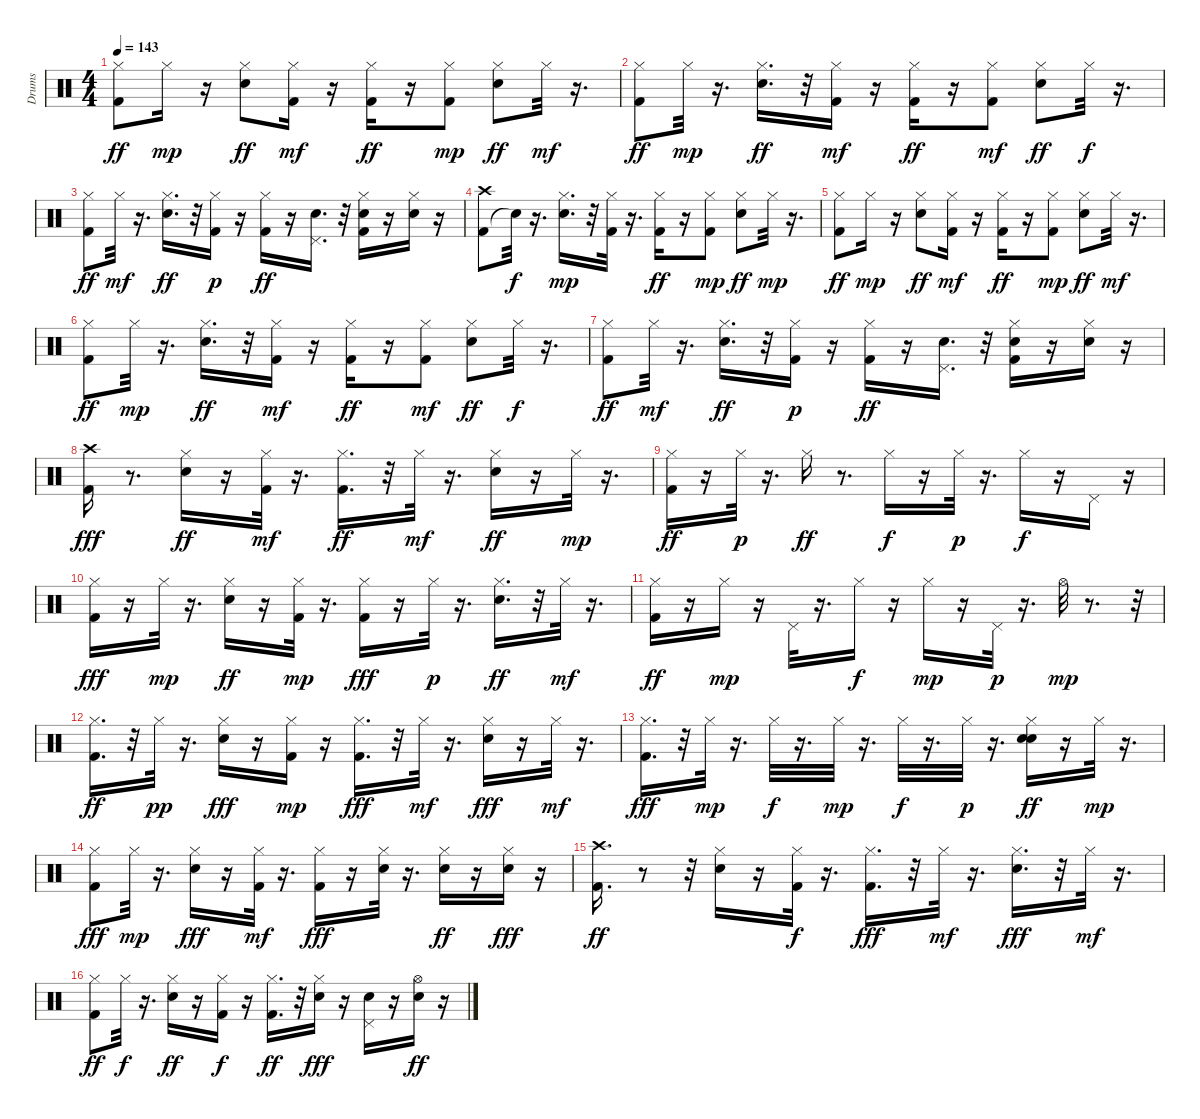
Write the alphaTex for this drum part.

\track ("Drums               " "Drums     ") {instrument percussion}
\staff {score}
\articulation defaults
\ts (4 4)
\tempo 143
\clef neutral
\ks c
("Kick (hit) 2" "Hi-Hat (closed)").8{dy ff} "Hi-Hat (closed)".16{dy mp} r.16 ("Snare (hit) 2" "Hi-Hat (closed)").8{dy ff} ("Kick (hit) 2" "Hi-Hat (closed)").16{dy mf} r.16 ("Kick (hit) 2" "Hi-Hat (closed)").16{dy ff} r.16 ("Kick (hit) 2" "Hi-Hat (closed)").8{dy mp} ("Snare (hit) 2" "Hi-Hat (closed)").8{dy ff} "Hi-Hat (closed)".32{dy mf} r.16{d} |
("Kick (hit) 2" "Hi-Hat (closed)").8{dy ff} "Hi-Hat (closed)".32{dy mp} r.16{d} ("Snare (hit) 2" "Hi-Hat (closed)").16{d dy ff} r.32 ("Kick (hit) 2" "Hi-Hat (closed)").16{dy mf} r.16 ("Kick (hit) 2" "Hi-Hat (closed)").16{dy ff} r.16 ("Kick (hit) 2" "Hi-Hat (closed)").8{dy mf} ("Snare (hit) 2" "Hi-Hat (closed)").8{dy ff} "Hi-Hat (closed)".32{dy f} r.16{d} |
("Kick (hit) 2" "Hi-Hat (closed)").8{dy ff} "Hi-Hat (closed)".32{dy mf} r.16{d} ("Snare (hit) 2" "Hi-Hat (closed)").16{d dy ff} r.32 ("Kick (hit) 2" "Hi-Hat (closed)").16{dy p} r.16 ("Kick (hit) 2" "Hi-Hat (closed)").16{dy ff} r.16 ("Snare (hit) 2" "Pedal Hi-Hat (hit)").16{d} r.32 ("Kick (hit) 2" "Snare (hit) 2" "Hi-Hat (closed)").16 r.16 ("Snare (hit) 2" "Hi-Hat (closed)").16 r.16 |
("Kick (hit) 2" "Crash high (hit)").8 "Snare (hit)"{t}.32{dy f} r.16{d} ("Snare (hit) 2" "Hi-Hat (closed)").16{d dy mp} r.32 ("Kick (hit) 2" "Hi-Hat (closed)").32 r.16{d} ("Kick (hit) 2" "Hi-Hat (closed)").16{dy ff} r.16 ("Kick (hit) 2" "Hi-Hat (closed)").8{dy mp} ("Snare (hit) 2" "Hi-Hat (closed)").8{dy ff} "Hi-Hat (closed)".32{dy mp} r.16{d} |
("Kick (hit) 2" "Hi-Hat (closed)").8{dy ff} "Hi-Hat (closed)".16{dy mp} r.16 ("Snare (hit) 2" "Hi-Hat (closed)").8{dy ff} ("Kick (hit) 2" "Hi-Hat (closed)").16{dy mf} r.16 ("Kick (hit) 2" "Hi-Hat (closed)").16{dy ff} r.16 ("Kick (hit) 2" "Hi-Hat (closed)").8{dy mp} ("Snare (hit) 2" "Hi-Hat (closed)").8{dy ff} "Hi-Hat (closed)".32{dy mf} r.16{d} |
("Kick (hit) 2" "Hi-Hat (closed)").8{dy ff} "Hi-Hat (closed)".32{dy mp} r.16{d} ("Snare (hit) 2" "Hi-Hat (closed)").16{d dy ff} r.32 ("Kick (hit) 2" "Hi-Hat (closed)").16{dy mf} r.16 ("Kick (hit) 2" "Hi-Hat (closed)").16{dy ff} r.16 ("Kick (hit) 2" "Hi-Hat (closed)").8{dy mf} ("Snare (hit) 2" "Hi-Hat (closed)").8{dy ff} "Hi-Hat (closed)".32{dy f} r.16{d} |
("Kick (hit) 2" "Hi-Hat (closed)").8{dy ff} "Hi-Hat (closed)".32{dy mf} r.16{d} ("Snare (hit) 2" "Hi-Hat (closed)").16{d dy ff} r.32 ("Kick (hit) 2" "Hi-Hat (closed)").16{dy p} r.16 ("Kick (hit) 2" "Hi-Hat (closed)").16{dy ff} r.16 ("Snare (hit) 2" "Pedal Hi-Hat (hit)").16{d} r.32 ("Kick (hit) 2" "Snare (hit) 2" "Hi-Hat (closed)").16 r.16 ("Snare (hit) 2" "Hi-Hat (closed)").16 r.16 |
("Kick (hit) 2" "Crash high (hit)").16{dy fff} r.8{d} ("Snare (hit) 2" "Hi-Hat (closed)").16{dy ff} r.16 ("Kick (hit) 2" "Hi-Hat (closed)").32{dy mf} r.16{d} ("Kick (hit) 2" "Hi-Hat (closed)").16{d dy ff} r.32 "Hi-Hat (closed)".32{dy mf} r.16{d} ("Snare (hit) 2" "Hi-Hat (closed)").16{dy ff} r.16 "Hi-Hat (closed)".32{dy mp} r.16{d} |
("Kick (hit) 2" "Hi-Hat (closed)").16{dy ff} r.16 "Hi-Hat (closed)".32{dy p} r.16{d} "Hi-Hat (closed)".16{dy ff} r.8{d} "Hi-Hat (closed)".16{dy f} r.16 "Hi-Hat (closed)".32{dy p} r.16{d} "Hi-Hat (closed)".16{dy f} r.16 "Pedal Hi-Hat (hit)".16 r.16 |
("Kick (hit) 2" "Hi-Hat (closed)").16{dy fff} r.16 "Hi-Hat (closed)".32{dy mp} r.16{d} ("Snare (hit) 2" "Hi-Hat (closed)").16{dy ff} r.16 ("Kick (hit) 2" "Hi-Hat (closed)").32{dy mp} r.16{d} ("Kick (hit) 2" "Hi-Hat (closed)").16{dy fff} r.16 "Hi-Hat (closed)".32{dy p} r.16{d} ("Snare (hit) 2" "Hi-Hat (closed)").16{d dy ff} r.32 "Hi-Hat (closed)".32{dy mf} r.16{d} |
("Kick (hit) 2" "Hi-Hat (closed)").16{dy ff} r.16 "Hi-Hat (closed)".16{dy mp} r.16 "Pedal Hi-Hat (hit)".32 r.16{d} "Hi-Hat (closed)".16{dy f} r.16 "Hi-Hat (closed)".16{dy mp} r.16 "Pedal Hi-Hat (hit)".32{dy p} r.16{d} "Hi-Hat (open)".32{dy mp} r.8{d} r.32 |
("Kick (hit) 2" "Hi-Hat (closed)").16{d dy ff} r.32 "Hi-Hat (closed)".32{dy pp} r.16{d} ("Snare (hit) 2" "Hi-Hat (closed)").16{dy fff} r.16 ("Kick (hit) 2" "Hi-Hat (closed)").16{dy mp} r.16 ("Kick (hit) 2" "Hi-Hat (closed)").16{d dy fff} r.32 "Hi-Hat (closed)".32{dy mf} r.16{d} ("Snare (hit) 2" "Hi-Hat (closed)").16{dy fff} r.16 "Hi-Hat (closed)".32{dy mf} r.16{d} |
("Kick (hit) 2" "Hi-Hat (closed)").16{d dy fff} r.32 "Hi-Hat (closed)".32{dy mp} r.16{d} "Hi-Hat (closed)".32{dy f} r.16{d} "Hi-Hat (closed)".32{dy mp} r.16{d} "Hi-Hat (closed)".32{dy f} r.16{d} "Hi-Hat (closed)".32{dy p} r.16{d} ("Snare (hit) 2" "Electric Snare (hit)" "Hi-Hat (closed)").16{dy ff} r.16 "Hi-Hat (closed)".32{dy mp} r.16{d} |
("Kick (hit) 2" "Hi-Hat (closed)").8{dy fff} "Hi-Hat (closed)".32{dy mp} r.16{d} ("Snare (hit) 2" "Hi-Hat (closed)").16{dy fff} r.16 ("Kick (hit) 2" "Hi-Hat (closed)").32{dy mf} r.16{d} ("Kick (hit) 2" "Hi-Hat (closed)").16{dy fff} r.16 ("Snare (hit) 2" "Hi-Hat (closed)").32 r.16{d} ("Snare (hit) 2" "Hi-Hat (closed)").16{dy ff} r.16 ("Snare (hit) 2" "Hi-Hat (closed)").16{dy fff} r.16 |
("Kick (hit) 2" "Crash high (hit)").16{d dy ff} r.8 r.32 ("Snare (hit) 2" "Hi-Hat (closed)").16 r.16 ("Kick (hit) 2" "Hi-Hat (closed)").32{dy f} r.16{d} ("Kick (hit) 2" "Hi-Hat (closed)").16{d dy fff} r.32 "Hi-Hat (closed)".32{dy mf} r.16{d} ("Snare (hit) 2" "Hi-Hat (closed)").16{d dy fff} r.32 "Hi-Hat (closed)".32{dy mf} r.16{d} |
("Kick (hit) 2" "Hi-Hat (closed)").8{dy ff} "Hi-Hat (closed)".32{dy f} r.16{d} ("Snare (hit) 2" "Hi-Hat (closed)").16{dy ff} r.16 ("Kick (hit) 2" "Hi-Hat (closed)").16{dy f} r.16 ("Kick (hit) 2" "Hi-Hat (closed)").16{d dy ff} r.32 ("Snare (hit) 2" "Hi-Hat (closed)").16{dy fff} r.16 ("Snare (hit) 2" "Pedal Hi-Hat (hit)").16 r.16 ("Snare (hit) 2" "Hi-Hat (open)").16{dy ff} r.16
